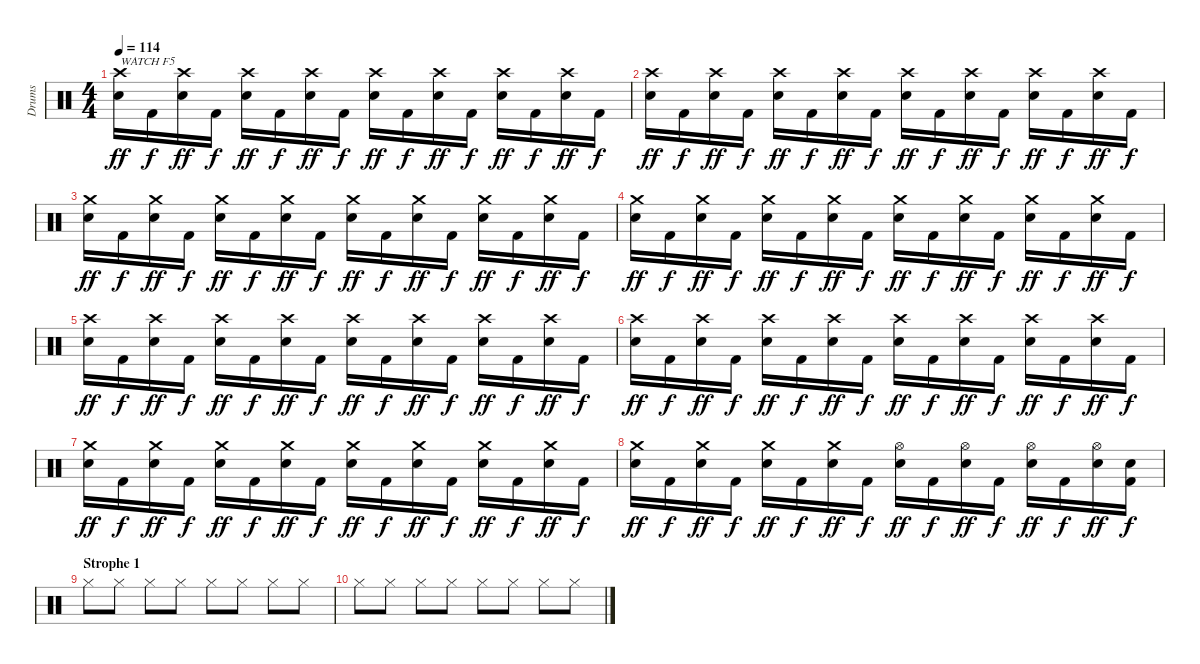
\track ("Drums" "Drums") {instrument percussion}
\staff {score}
\articulation defaults
\ts (4 4)
\tempo 114
\clef neutral
\ks c
("Crash high (hit)" "Electric Snare (hit)").16{txt "WATCH F5" dy ff volume 14} "Kick (hit) 2".16{dy f} ("Crash high (hit)" "Electric Snare (hit)").16{dy ff} "Kick (hit) 2".16{dy f} ("Crash high (hit)" "Electric Snare (hit)").16{dy ff} "Kick (hit) 2".16{dy f} ("Crash high (hit)" "Electric Snare (hit)").16{dy ff} "Kick (hit) 2".16{dy f} ("Crash high (hit)" "Electric Snare (hit)").16{dy ff} "Kick (hit) 2".16{dy f} ("Crash high (hit)" "Electric Snare (hit)").16{dy ff} "Kick (hit) 2".16{dy f} ("Crash high (hit)" "Electric Snare (hit)").16{dy ff} "Kick (hit) 2".16{dy f} ("Crash high (hit)" "Electric Snare (hit)").16{dy ff} "Kick (hit) 2".16{dy f} |
("Crash high (hit)" "Electric Snare (hit)").16{dy ff} "Kick (hit) 2".16{dy f} ("Crash high (hit)" "Electric Snare (hit)").16{dy ff} "Kick (hit) 2".16{dy f} ("Crash high (hit)" "Electric Snare (hit)").16{dy ff} "Kick (hit) 2".16{dy f} ("Crash high (hit)" "Electric Snare (hit)").16{dy ff} "Kick (hit) 2".16{dy f} ("Crash high (hit)" "Electric Snare (hit)").16{dy ff} "Kick (hit) 2".16{dy f} ("Crash high (hit)" "Electric Snare (hit)").16{dy ff} "Kick (hit) 2".16{dy f} ("Crash high (hit)" "Electric Snare (hit)").16{dy ff} "Kick (hit) 2".16{dy f} ("Crash high (hit)" "Electric Snare (hit)").16{dy ff} "Kick (hit) 2".16{dy f} |
("Crash medium (hit)" "Electric Snare (hit)").16{dy ff} "Kick (hit) 2".16{dy f} ("Crash medium (hit)" "Electric Snare (hit)").16{dy ff} "Kick (hit) 2".16{dy f} ("Crash medium (hit)" "Electric Snare (hit)").16{dy ff} "Kick (hit) 2".16{dy f} ("Crash medium (hit)" "Electric Snare (hit)").16{dy ff} "Kick (hit) 2".16{dy f} ("Crash medium (hit)" "Electric Snare (hit)").16{dy ff} "Kick (hit) 2".16{dy f} ("Crash medium (hit)" "Electric Snare (hit)").16{dy ff} "Kick (hit) 2".16{dy f} ("Crash medium (hit)" "Electric Snare (hit)").16{dy ff} "Kick (hit) 2".16{dy f} ("Crash medium (hit)" "Electric Snare (hit)").16{dy ff} "Kick (hit) 2".16{dy f} |
("Crash medium (hit)" "Electric Snare (hit)").16{dy ff} "Kick (hit) 2".16{dy f} ("Crash medium (hit)" "Electric Snare (hit)").16{dy ff} "Kick (hit) 2".16{dy f} ("Crash medium (hit)" "Electric Snare (hit)").16{dy ff} "Kick (hit) 2".16{dy f} ("Crash medium (hit)" "Electric Snare (hit)").16{dy ff} "Kick (hit) 2".16{dy f} ("Crash medium (hit)" "Electric Snare (hit)").16{dy ff} "Kick (hit) 2".16{dy f} ("Crash medium (hit)" "Electric Snare (hit)").16{dy ff} "Kick (hit) 2".16{dy f} ("Crash medium (hit)" "Electric Snare (hit)").16{dy ff} "Kick (hit) 2".16{dy f} ("Crash medium (hit)" "Electric Snare (hit)").16{dy ff} "Kick (hit) 2".16{dy f} |
("Crash high (hit)" "Electric Snare (hit)").16{dy ff} "Kick (hit) 2".16{dy f} ("Crash high (hit)" "Electric Snare (hit)").16{dy ff} "Kick (hit) 2".16{dy f} ("Crash high (hit)" "Electric Snare (hit)").16{dy ff} "Kick (hit) 2".16{dy f} ("Crash high (hit)" "Electric Snare (hit)").16{dy ff} "Kick (hit) 2".16{dy f} ("Crash high (hit)" "Electric Snare (hit)").16{dy ff} "Kick (hit) 2".16{dy f} ("Crash high (hit)" "Electric Snare (hit)").16{dy ff} "Kick (hit) 2".16{dy f} ("Crash high (hit)" "Electric Snare (hit)").16{dy ff} "Kick (hit) 2".16{dy f} ("Crash high (hit)" "Electric Snare (hit)").16{dy ff} "Kick (hit) 2".16{dy f} |
("Crash high (hit)" "Electric Snare (hit)").16{dy ff} "Kick (hit) 2".16{dy f} ("Crash high (hit)" "Electric Snare (hit)").16{dy ff} "Kick (hit) 2".16{dy f} ("Crash high (hit)" "Electric Snare (hit)").16{dy ff} "Kick (hit) 2".16{dy f} ("Crash high (hit)" "Electric Snare (hit)").16{dy ff} "Kick (hit) 2".16{dy f} ("Crash high (hit)" "Electric Snare (hit)").16{dy ff} "Kick (hit) 2".16{dy f} ("Crash high (hit)" "Electric Snare (hit)").16{dy ff} "Kick (hit) 2".16{dy f} ("Crash high (hit)" "Electric Snare (hit)").16{dy ff} "Kick (hit) 2".16{dy f} ("Crash high (hit)" "Electric Snare (hit)").16{dy ff} "Kick (hit) 2".16{dy f} |
("Crash medium (hit)" "Electric Snare (hit)").16{dy ff} "Kick (hit) 2".16{dy f} ("Crash medium (hit)" "Electric Snare (hit)").16{dy ff} "Kick (hit) 2".16{dy f} ("Crash medium (hit)" "Electric Snare (hit)").16{dy ff} "Kick (hit) 2".16{dy f} ("Crash medium (hit)" "Electric Snare (hit)").16{dy ff} "Kick (hit) 2".16{dy f} ("Crash medium (hit)" "Electric Snare (hit)").16{dy ff} "Kick (hit) 2".16{dy f} ("Crash medium (hit)" "Electric Snare (hit)").16{dy ff} "Kick (hit) 2".16{dy f} ("Crash medium (hit)" "Electric Snare (hit)").16{dy ff} "Kick (hit) 2".16{dy f} ("Crash medium (hit)" "Electric Snare (hit)").16{dy ff} "Kick (hit) 2".16{dy f} |
("Crash medium (hit)" "Electric Snare (hit)").16{dy ff} "Kick (hit) 2".16{dy f} ("Crash medium (hit)" "Electric Snare (hit)").16{dy ff} "Kick (hit) 2".16{dy f} ("Crash medium (hit)" "Electric Snare (hit)").16{dy ff} "Kick (hit) 2".16{dy f} ("Crash medium (hit)" "Electric Snare (hit)").16{dy ff} "Kick (hit) 2".16{dy f} ("Hi-Hat (open)" "Electric Snare (hit)").16{dy ff} "Kick (hit) 2".16{dy f} ("Hi-Hat (open)" "Electric Snare (hit)").16{dy ff} "Kick (hit) 2".16{dy f} ("Hi-Hat (open)" "Electric Snare (hit)").16{dy ff} "Kick (hit) 2".16{dy f} ("Hi-Hat (open)" "Electric Snare (hit)").16{dy ff} ("Electric Snare (hit)" "Kick (hit) 2").16{dy f} |
\section ("" "Strophe 1")
"Hi-Hat (closed)".8 "Hi-Hat (closed)".8 "Hi-Hat (closed)".8 "Hi-Hat (closed)".8 "Hi-Hat (closed)".8 "Hi-Hat (closed)".8 "Hi-Hat (closed)".8 "Hi-Hat (closed)".8 |
"Hi-Hat (closed)".8 "Hi-Hat (closed)".8 "Hi-Hat (closed)".8 "Hi-Hat (closed)".8 "Hi-Hat (closed)".8 "Hi-Hat (closed)".8 "Hi-Hat (closed)".8 "Hi-Hat (closed)".8
